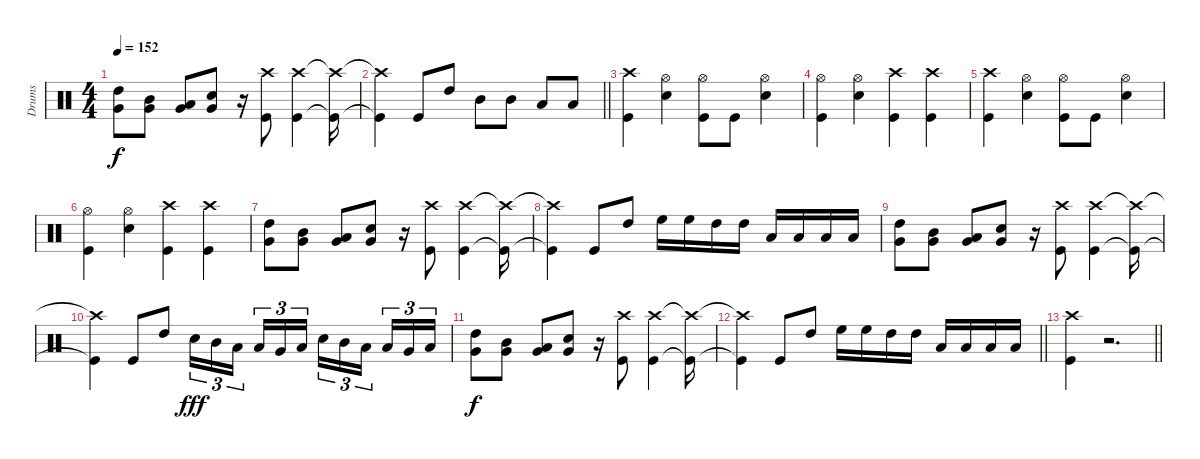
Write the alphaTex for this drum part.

\track ("Drums" "Drums") {instrument percussion}
\staff {score}
\articulation defaults
\ts (4 4)
\tempo 152
\clef neutral
\ks c
("Very Low Tom (hit)" "High Tom (hit)").8{dy f} ("Very Low Tom (hit)" "Mid Tom (hit)").8 ("Very Low Tom (hit)" "Low Tom (hit)").8 ("Very Low Tom (hit)" "Snare (hit) 2").8 r.16 ("Kick (hit)" "Crash high (hit)").8 ("Kick (hit)" "Crash high (hit)").4 ("Kick (hit)"{t} "Crash high (hit)"{t}).16 |
\barLineRight lightlight
("Kick (hit)"{t} "Crash high (hit)"{t}).4 "Kick (hit)".8 "High Tom (hit)".8 "Mid Tom (hit)".8 "Mid Tom (hit)".8 "Low Tom (hit)".8 "Low Tom (hit)".8 |
("Kick (hit)" "Crash high (hit)").4 ("Hi-Hat (open)" "Snare (hit) 2").4 ("Hi-Hat (open)" "Kick (hit)").8 "Kick (hit)".8 ("Hi-Hat (open)" "Snare (hit) 2").4 |
("Kick (hit)" "Hi-Hat (open)").4 ("Hi-Hat (open)" "Snare (hit) 2").4 ("Kick (hit)" "Crash high (hit)").4 ("Kick (hit)" "Crash high (hit)").4 |
("Kick (hit)" "Crash high (hit)").4 ("Hi-Hat (open)" "Snare (hit) 2").4 ("Hi-Hat (open)" "Kick (hit)").8 "Kick (hit)".8 ("Hi-Hat (open)" "Snare (hit) 2").4 |
("Kick (hit)" "Hi-Hat (open)").4 ("Hi-Hat (open)" "Snare (hit) 2").4 ("Kick (hit)" "Crash high (hit)").4 ("Kick (hit)" "Crash high (hit)").4 |
("Very Low Tom (hit)" "High Tom (hit)").8 ("Very Low Tom (hit)" "Mid Tom (hit)").8 ("Very Low Tom (hit)" "Low Tom (hit)").8 ("Very Low Tom (hit)" "Snare (hit) 2").8 r.16 ("Kick (hit)" "Crash high (hit)").8 ("Kick (hit)" "Crash high (hit)").4 ("Kick (hit)"{t} "Crash high (hit)"{t}).16 |
("Kick (hit)"{t} "Crash high (hit)"{t}).4 "Kick (hit)".8 "High Tom (hit)".8 "High Floor Tom (hit)".16 "High Floor Tom (hit)".16 "High Tom (hit)".16 "High Tom (hit)".16 "Low Tom (hit)".16 "Low Tom (hit)".16 "Low Tom (hit)".16 "Low Tom (hit)".16 |
("Very Low Tom (hit)" "High Tom (hit)").8 ("Very Low Tom (hit)" "Mid Tom (hit)").8 ("Very Low Tom (hit)" "Low Tom (hit)").8 ("Very Low Tom (hit)" "Snare (hit) 2").8 r.16 ("Kick (hit)" "Crash high (hit)").8 ("Kick (hit)" "Crash high (hit)").4 ("Kick (hit)"{t} "Crash high (hit)"{t}).16 |
("Kick (hit)"{t} "Crash high (hit)"{t}).4 "Kick (hit)".8 "High Tom (hit)".8 "Snare (hit) 2".16{tu (3 2) dy fff} "Mid Tom (hit)".16{tu (3 2)} "Low Tom (hit)".16{tu (3 2) beam splitsecondary} "Low Tom (hit)".16{tu (3 2)} "Very Low Tom (hit)".16{tu (3 2)} "Low Floor Tom (hit)".16{tu (3 2)} "Snare (hit) 2".16{tu (3 2)} "Mid Tom (hit)".16{tu (3 2)} "Low Tom (hit)".16{tu (3 2) beam splitsecondary} "Low Tom (hit)".16{tu (3 2)} "Very Low Tom (hit)".16{tu (3 2)} "Low Floor Tom (hit)".16{tu (3 2)} |
("Very Low Tom (hit)" "High Tom (hit)").8{dy f} ("Very Low Tom (hit)" "Mid Tom (hit)").8 ("Very Low Tom (hit)" "Low Tom (hit)").8 ("Very Low Tom (hit)" "Snare (hit) 2").8 r.16 ("Kick (hit)" "Crash high (hit)").8 ("Kick (hit)" "Crash high (hit)").4 ("Kick (hit)"{t} "Crash high (hit)"{t}).16 |
\barLineRight lightlight
("Kick (hit)"{t} "Crash high (hit)"{t}).4 "Kick (hit)".8 "High Tom (hit)".8 "High Floor Tom (hit)".16 "High Floor Tom (hit)".16 "High Tom (hit)".16 "High Tom (hit)".16 "Low Tom (hit)".16 "Low Tom (hit)".16 "Low Tom (hit)".16 "Low Tom (hit)".16 |
\barLineRight lightlight
("Kick (hit)" "Crash high (hit)").4 r.2{d}
